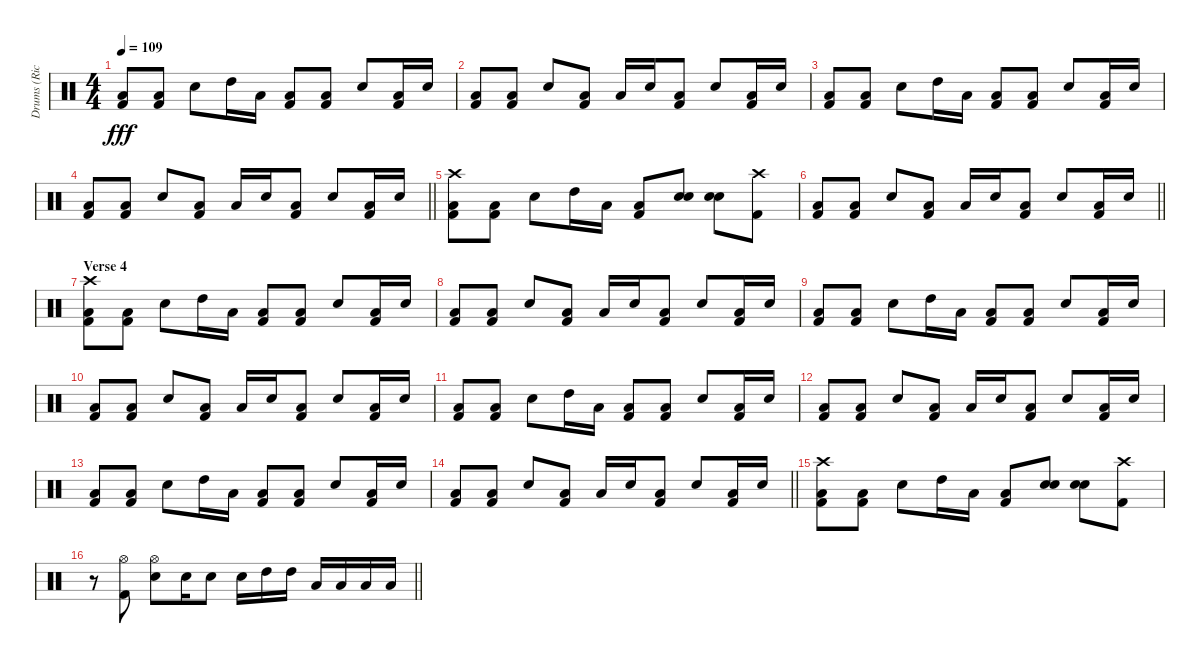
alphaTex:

\track ("Drums (Rick McMurray)" "Drums (Ric") {instrument percussion}
\staff {score}
\articulation defaults
\ts (4 4)
\tempo 109
\clef neutral
\ks c
("Low Floor Tom (hit)" "Kick (hit) 2").8{dy fff} ("Low Floor Tom (hit)" "Kick (hit) 2").8 "Snare (hit) 2".8 "High Tom (hit)".16 "Low Tom (hit)".16 ("Low Floor Tom (hit)" "Kick (hit) 2").8 ("Low Floor Tom (hit)" "Kick (hit) 2").8 "Snare (hit) 2".8 ("Low Floor Tom (hit)" "Kick (hit) 2").16 "Snare (hit) 2".16 |
("Low Floor Tom (hit)" "Kick (hit) 2").8 ("Low Floor Tom (hit)" "Kick (hit) 2").8 "Snare (hit) 2".8 ("Low Floor Tom (hit)" "Kick (hit) 2").8 "Low Floor Tom (hit)".16 "Snare (hit) 2".16 ("Low Floor Tom (hit)" "Kick (hit) 2").8 "Snare (hit) 2".8 ("Kick (hit) 2" "Low Floor Tom (hit)").16 "Snare (hit) 2".16 |
("Low Floor Tom (hit)" "Kick (hit) 2").8 ("Low Floor Tom (hit)" "Kick (hit) 2").8 "Snare (hit) 2".8 "High Tom (hit)".16 "Low Tom (hit)".16 ("Low Floor Tom (hit)" "Kick (hit) 2").8 ("Low Floor Tom (hit)" "Kick (hit) 2").8 "Snare (hit) 2".8 ("Low Floor Tom (hit)" "Kick (hit) 2").16 "Snare (hit) 2".16 |
\barLineRight lightlight
("Low Floor Tom (hit)" "Kick (hit) 2").8 ("Low Floor Tom (hit)" "Kick (hit) 2").8 "Snare (hit) 2".8 ("Low Floor Tom (hit)" "Kick (hit) 2").8 "Low Floor Tom (hit)".16 "Snare (hit) 2".16 ("Low Floor Tom (hit)" "Kick (hit) 2").8 "Snare (hit) 2".8 ("Kick (hit) 2" "Low Floor Tom (hit)").16 "Snare (hit) 2".16 |
("Crash high (hit)" "Low Floor Tom (hit)" "Kick (hit) 2").8 ("Low Floor Tom (hit)" "Kick (hit) 2").8 "Snare (hit) 2".8 "High Tom (hit)".16 "Low Tom (hit)".16 ("Low Floor Tom (hit)" "Kick (hit) 2").8 ("Electric Snare (hit)" "Snare (hit) 2").8{bd 120} ("Electric Snare (hit)" "Snare (hit) 2").8{bd 120} ("Crash high (hit)" "Kick (hit) 2").8 |
\barLineRight lightlight
("Low Floor Tom (hit)" "Kick (hit) 2").8 ("Low Floor Tom (hit)" "Kick (hit) 2").8 "Snare (hit) 2".8 ("Low Floor Tom (hit)" "Kick (hit) 2").8 "Low Floor Tom (hit)".16 "Snare (hit) 2".16 ("Low Floor Tom (hit)" "Kick (hit) 2").8 "Snare (hit) 2".8 ("Kick (hit) 2" "Low Floor Tom (hit)").16 "Snare (hit) 2".16 |
\section ("" "Verse 4")
("Crash high (hit)" "Low Floor Tom (hit)" "Kick (hit) 2").8 ("Low Floor Tom (hit)" "Kick (hit) 2").8 "Snare (hit) 2".8 "High Tom (hit)".16 "Low Tom (hit)".16 ("Low Floor Tom (hit)" "Kick (hit) 2").8 ("Low Floor Tom (hit)" "Kick (hit) 2").8 "Snare (hit) 2".8 ("Low Floor Tom (hit)" "Kick (hit) 2").16 "Snare (hit) 2".16 |
("Low Floor Tom (hit)" "Kick (hit) 2").8 ("Low Floor Tom (hit)" "Kick (hit) 2").8 "Snare (hit) 2".8 ("Low Floor Tom (hit)" "Kick (hit) 2").8 "Low Floor Tom (hit)".16 "Snare (hit) 2".16 ("Low Floor Tom (hit)" "Kick (hit) 2").8 "Snare (hit) 2".8 ("Kick (hit) 2" "Low Floor Tom (hit)").16 "Snare (hit) 2".16 |
("Low Floor Tom (hit)" "Kick (hit) 2").8 ("Low Floor Tom (hit)" "Kick (hit) 2").8 "Snare (hit) 2".8 "High Tom (hit)".16 "Low Tom (hit)".16 ("Low Floor Tom (hit)" "Kick (hit) 2").8 ("Low Floor Tom (hit)" "Kick (hit) 2").8 "Snare (hit) 2".8 ("Low Floor Tom (hit)" "Kick (hit) 2").16 "Snare (hit) 2".16 |
("Low Floor Tom (hit)" "Kick (hit) 2").8 ("Low Floor Tom (hit)" "Kick (hit) 2").8 "Snare (hit) 2".8 ("Low Floor Tom (hit)" "Kick (hit) 2").8 "Low Floor Tom (hit)".16 "Snare (hit) 2".16 ("Low Floor Tom (hit)" "Kick (hit) 2").8 "Snare (hit) 2".8 ("Kick (hit) 2" "Low Floor Tom (hit)").16 "Snare (hit) 2".16 |
("Low Floor Tom (hit)" "Kick (hit) 2").8 ("Low Floor Tom (hit)" "Kick (hit) 2").8 "Snare (hit) 2".8 "High Tom (hit)".16 "Low Tom (hit)".16 ("Low Floor Tom (hit)" "Kick (hit) 2").8 ("Low Floor Tom (hit)" "Kick (hit) 2").8 "Snare (hit) 2".8 ("Low Floor Tom (hit)" "Kick (hit) 2").16 "Snare (hit) 2".16 |
("Low Floor Tom (hit)" "Kick (hit) 2").8 ("Low Floor Tom (hit)" "Kick (hit) 2").8 "Snare (hit) 2".8 ("Low Floor Tom (hit)" "Kick (hit) 2").8 "Low Floor Tom (hit)".16 "Snare (hit) 2".16 ("Low Floor Tom (hit)" "Kick (hit) 2").8 "Snare (hit) 2".8 ("Kick (hit) 2" "Low Floor Tom (hit)").16 "Snare (hit) 2".16 |
("Low Floor Tom (hit)" "Kick (hit) 2").8 ("Low Floor Tom (hit)" "Kick (hit) 2").8 "Snare (hit) 2".8 "High Tom (hit)".16 "Low Tom (hit)".16 ("Low Floor Tom (hit)" "Kick (hit) 2").8 ("Low Floor Tom (hit)" "Kick (hit) 2").8 "Snare (hit) 2".8 ("Low Floor Tom (hit)" "Kick (hit) 2").16 "Snare (hit) 2".16 |
\barLineRight lightlight
("Low Floor Tom (hit)" "Kick (hit) 2").8 ("Low Floor Tom (hit)" "Kick (hit) 2").8 "Snare (hit) 2".8 ("Low Floor Tom (hit)" "Kick (hit) 2").8 "Low Floor Tom (hit)".16 "Snare (hit) 2".16 ("Low Floor Tom (hit)" "Kick (hit) 2").8 "Snare (hit) 2".8 ("Kick (hit) 2" "Low Floor Tom (hit)").16 "Snare (hit) 2".16 |
("Crash high (hit)" "Low Floor Tom (hit)" "Kick (hit) 2").8 ("Low Floor Tom (hit)" "Kick (hit) 2").8 "Snare (hit) 2".8 "High Tom (hit)".16 "Low Tom (hit)".16 ("Low Floor Tom (hit)" "Kick (hit) 2").8 ("Electric Snare (hit)" "Snare (hit) 2").8{bd 120} ("Electric Snare (hit)" "Snare (hit) 2").8{bd 120} ("Crash high (hit)" "Kick (hit) 2").8 |
\barLineRight lightlight
r.8 ("Hi-Hat (open)" "Kick (hit) 2").8 ("Hi-Hat (open)" "Snare (hit) 2").8 "Snare (hit) 2".16 "Snare (hit) 2".8 "Snare (hit) 2".16 "High Tom (hit)".16 "High Tom (hit)".16 "Low Tom (hit)".16 "Low Tom (hit)".16 "Low Floor Tom (hit)".16 "Low Floor Tom (hit)".16
